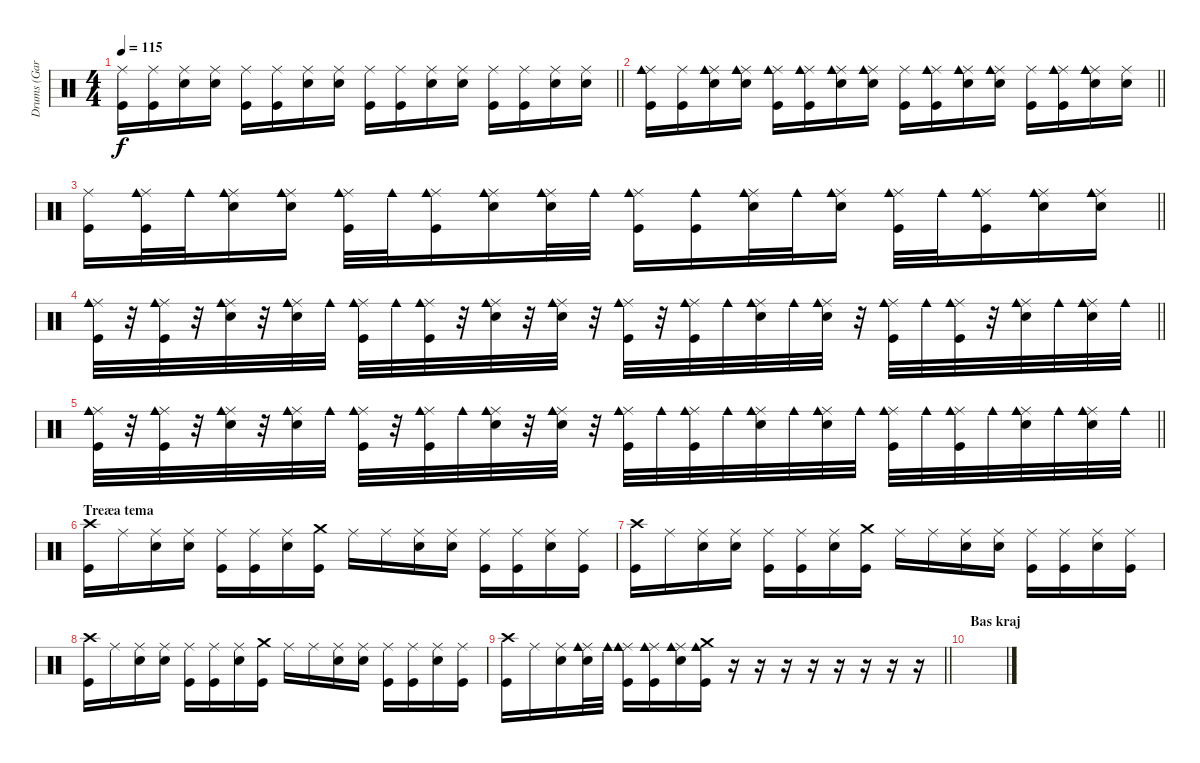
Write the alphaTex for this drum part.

\track ("Drums (Garabet Tavitjan)" "Drums (Gar") {instrument percussion}
\staff {score}
\articulation defaults
\ts (4 4)
\tempo 115
\clef neutral
\barLineRight lightlight
\ks c
("Ride (middle)" "Kick (hit)").16{dy f} ("Ride (middle)" "Kick (hit)").16 ("Ride (middle)" "Electric Snare (hit)").16 ("Ride (middle)" "Electric Snare (hit)").16 ("Ride (middle)" "Kick (hit)").16 ("Ride (middle)" "Kick (hit)").16 ("Ride (middle)" "Electric Snare (hit)").16 ("Ride (middle)" "Electric Snare (hit)").16 ("Ride (middle)" "Kick (hit)").16 ("Ride (middle)" "Kick (hit)").16 ("Ride (middle)" "Electric Snare (hit)").16 ("Ride (middle)" "Electric Snare (hit)").16 ("Ride (middle)" "Kick (hit)").16 ("Ride (middle)" "Kick (hit)").16 ("Ride (middle)" "Electric Snare (hit)").16 ("Ride (middle)" "Electric Snare (hit)").16 |
\barLineRight lightlight
("Ride (middle)" "Cowbell medium (hit)" "Kick (hit)").16 ("Ride (middle)" "Kick (hit)").16 ("Ride (middle)" "Cowbell medium (hit)" "Electric Snare (hit)").16 ("Ride (middle)" "Cowbell medium (hit)" "Electric Snare (hit)").16 ("Ride (middle)" "Cowbell medium (hit)" "Kick (hit)").16 ("Ride (middle)" "Cowbell medium (hit)" "Kick (hit)").16 ("Ride (middle)" "Cowbell medium (hit)" "Electric Snare (hit)").16 ("Ride (middle)" "Cowbell medium (hit)" "Electric Snare (hit)").16 ("Ride (middle)" "Kick (hit)").16 ("Ride (middle)" "Cowbell medium (hit)" "Kick (hit)").16 ("Ride (middle)" "Cowbell medium (hit)" "Electric Snare (hit)").16 ("Ride (middle)" "Cowbell medium (hit)" "Electric Snare (hit)").16 ("Ride (middle)" "Kick (hit)").16 ("Ride (middle)" "Cowbell medium (hit)" "Kick (hit)").16 ("Ride (middle)" "Cowbell medium (hit)" "Electric Snare (hit)").16 ("Ride (middle)" "Electric Snare (hit)").16 |
\barLineRight lightlight
("Ride (middle)" "Kick (hit)").16 ("Ride (middle)" "Cowbell medium (hit)" "Kick (hit)").32 "Cowbell medium (hit)".32 ("Ride (middle)" "Cowbell medium (hit)" "Electric Snare (hit)").16 ("Ride (middle)" "Cowbell medium (hit)" "Electric Snare (hit)").16 ("Ride (middle)" "Cowbell medium (hit)" "Kick (hit)").32 "Cowbell medium (hit)".32 ("Ride (middle)" "Cowbell medium (hit)" "Kick (hit)").16 ("Ride (middle)" "Cowbell medium (hit)" "Electric Snare (hit)").16 ("Ride (middle)" "Cowbell medium (hit)" "Electric Snare (hit)").32 "Cowbell medium (hit)".32 ("Ride (middle)" "Cowbell medium (hit)" "Kick (hit)").16 ("Cowbell medium (hit)" "Kick (hit)").16 ("Ride (middle)" "Cowbell medium (hit)" "Electric Snare (hit)").32 "Cowbell medium (hit)".32 ("Ride (middle)" "Cowbell medium (hit)" "Electric Snare (hit)").16 ("Ride (middle)" "Cowbell medium (hit)" "Kick (hit)").32 "Cowbell medium (hit)".32 ("Ride (middle)" "Cowbell medium (hit)" "Kick (hit)").16 ("Ride (middle)" "Cowbell medium (hit)" "Electric Snare (hit)").16 ("Ride (middle)" "Cowbell medium (hit)" "Electric Snare (hit)").16 |
\barLineRight lightlight
("Ride (middle)" "Cowbell medium (hit)" "Kick (hit)").32 r.32 ("Ride (middle)" "Cowbell medium (hit)" "Kick (hit)").32 r.32 ("Ride (middle)" "Cowbell medium (hit)" "Electric Snare (hit)").32 r.32 ("Ride (middle)" "Cowbell medium (hit)" "Electric Snare (hit)").32 "Cowbell medium (hit)".32 ("Ride (middle)" "Cowbell medium (hit)" "Kick (hit)").32 "Cowbell medium (hit)".32 ("Ride (middle)" "Cowbell medium (hit)" "Kick (hit)").32 r.32 ("Ride (middle)" "Cowbell medium (hit)" "Electric Snare (hit)").32 r.32 ("Ride (middle)" "Cowbell medium (hit)" "Electric Snare (hit)").32 r.32 ("Ride (middle)" "Cowbell medium (hit)" "Kick (hit)").32 r.32 ("Ride (middle)" "Cowbell medium (hit)" "Kick (hit)").32 "Cowbell medium (hit)".32 ("Ride (middle)" "Cowbell medium (hit)" "Electric Snare (hit)").32 "Cowbell medium (hit)".32 ("Ride (middle)" "Cowbell medium (hit)" "Electric Snare (hit)").32 r.32 ("Ride (middle)" "Cowbell medium (hit)" "Kick (hit)").32 "Cowbell medium (hit)".32 ("Ride (middle)" "Cowbell medium (hit)" "Kick (hit)").32 r.32 ("Ride (middle)" "Cowbell medium (hit)" "Electric Snare (hit)").32 "Cowbell medium (hit)".32 ("Ride (middle)" "Cowbell medium (hit)" "Electric Snare (hit)").32 "Cowbell medium (hit)".32 |
\barLineRight lightlight
("Ride (middle)" "Cowbell medium (hit)" "Kick (hit)").32 r.32 ("Ride (middle)" "Cowbell medium (hit)" "Kick (hit)").32 r.32 ("Ride (middle)" "Cowbell medium (hit)" "Electric Snare (hit)").32 r.32 ("Ride (middle)" "Cowbell medium (hit)" "Electric Snare (hit)").32 "Cowbell medium (hit)".32 ("Ride (middle)" "Cowbell medium (hit)" "Kick (hit)").32 r.32 ("Ride (middle)" "Cowbell medium (hit)" "Kick (hit)").32 "Cowbell medium (hit)".32 ("Ride (middle)" "Cowbell medium (hit)" "Electric Snare (hit)").32 r.32 ("Ride (middle)" "Cowbell medium (hit)" "Electric Snare (hit)").32 r.32 ("Ride (middle)" "Cowbell medium (hit)" "Kick (hit)").32 "Cowbell medium (hit)".32 ("Ride (middle)" "Cowbell medium (hit)" "Kick (hit)").32 "Cowbell medium (hit)".32 ("Ride (middle)" "Cowbell medium (hit)" "Electric Snare (hit)").32 "Cowbell medium (hit)".32 ("Ride (middle)" "Cowbell medium (hit)" "Electric Snare (hit)").32 "Cowbell medium (hit)".32 ("Ride (middle)" "Cowbell medium (hit)" "Kick (hit)").32 "Cowbell medium (hit)".32 ("Ride (middle)" "Cowbell medium (hit)" "Kick (hit)").32 "Cowbell medium (hit)".32 ("Ride (middle)" "Cowbell medium (hit)" "Electric Snare (hit)").32 "Cowbell medium (hit)".32 ("Ride (middle)" "Cowbell medium (hit)" "Electric Snare (hit)").32 "Cowbell medium (hit)".32 |
\section ("" "Treæa tema")
("Crash high (hit)" "Kick (hit)").16 "Ride (middle)".16 ("Ride (middle)" "Electric Snare (hit)").16 ("Ride (middle)" "Electric Snare (hit)").16 ("Ride (middle)" "Kick (hit)").16 ("Ride (middle)" "Kick (hit)").16 ("Ride (middle)" "Electric Snare (hit)").16 ("Crash medium (hit)" "Kick (hit)").16 "Ride (middle)".16 "Ride (middle)".16 ("Ride (middle)" "Electric Snare (hit)").16 ("Ride (middle)" "Electric Snare (hit)").16 ("Ride (middle)" "Kick (hit)").16 ("Ride (middle)" "Kick (hit)").16 ("Ride (middle)" "Electric Snare (hit)").16 ("Ride (middle)" "Kick (hit)").16 |
("Crash high (hit)" "Kick (hit)").16 "Ride (middle)".16 ("Ride (middle)" "Electric Snare (hit)").16 ("Ride (middle)" "Electric Snare (hit)").16 ("Ride (middle)" "Kick (hit)").16 ("Ride (middle)" "Kick (hit)").16 ("Ride (middle)" "Electric Snare (hit)").16 ("Crash medium (hit)" "Kick (hit)").16 "Ride (middle)".16 "Ride (middle)".16 ("Ride (middle)" "Electric Snare (hit)").16 ("Ride (middle)" "Electric Snare (hit)").16 ("Ride (middle)" "Kick (hit)").16 ("Ride (middle)" "Kick (hit)").16 ("Ride (middle)" "Electric Snare (hit)").16 ("Ride (middle)" "Kick (hit)").16 |
("Crash high (hit)" "Kick (hit)").16 "Ride (middle)".16 ("Ride (middle)" "Electric Snare (hit)").16 ("Ride (middle)" "Electric Snare (hit)").16 ("Ride (middle)" "Kick (hit)").16 ("Ride (middle)" "Kick (hit)").16 ("Ride (middle)" "Electric Snare (hit)").16 ("Crash medium (hit)" "Kick (hit)").16 "Ride (middle)".16 "Ride (middle)".16 ("Ride (middle)" "Electric Snare (hit)").16 ("Ride (middle)" "Electric Snare (hit)").16 ("Ride (middle)" "Kick (hit)").16 ("Ride (middle)" "Kick (hit)").16 ("Ride (middle)" "Electric Snare (hit)").16 ("Ride (middle)" "Kick (hit)").16 |
\barLineRight lightlight
("Crash high (hit)" "Kick (hit)").16 "Ride (middle)".16 ("Ride (middle)" "Electric Snare (hit)").16 ("Ride (middle)" "Cowbell medium (hit)" "Electric Snare (hit)").32 "Cowbell medium (hit)".32 ("Ride (middle)" "Cowbell medium (hit)" "Kick (hit)").16 ("Ride (middle)" "Cowbell medium (hit)" "Kick (hit)").16 ("Ride (middle)" "Cowbell medium (hit)" "Electric Snare (hit)").16 ("Crash medium (hit)" "Cowbell medium (hit)" "Kick (hit)").16 r.16 r.16 r.16 r.16 r.16 r.16 r.16 r.16 |
\section ("" "Bas kraj")
